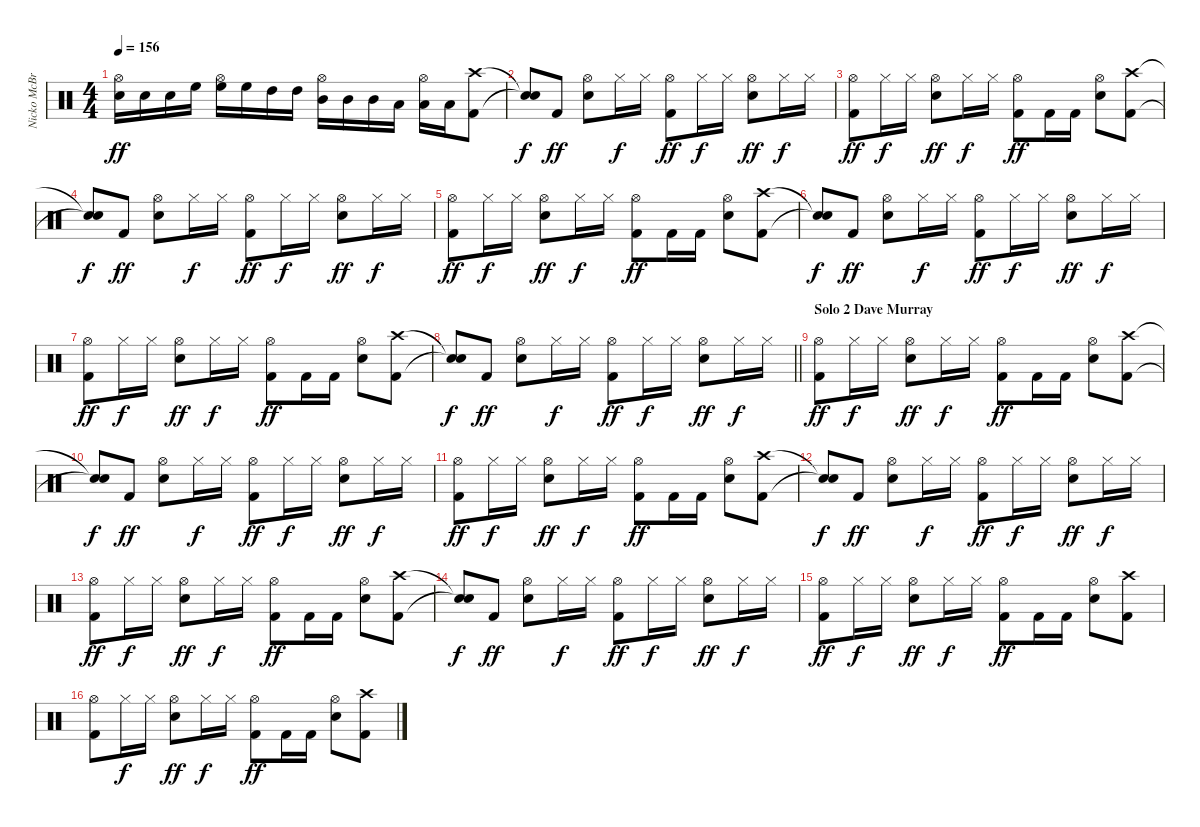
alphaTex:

\track ("Nicko McBrain" "Nicko McBr") {instrument percussion}
\staff {score}
\articulation defaults
\ts (4 4)
\tempo 156
\clef neutral
\ks c
("Snare (hit) 2" "Hi-Hat (open)").16{dy ff} "Snare (hit) 2".16 "Snare (hit) 2".16 "High Floor Tom (hit)".16 ("Hi-Hat (open)" "High Floor Tom (hit)").16 "High Floor Tom (hit)".16 "High Tom (hit)".16 "High Tom (hit)".16 ("Hi-Hat (open)" "Mid Tom (hit)").16 "Mid Tom (hit)".16 "Mid Tom (hit)".16 "Low Tom (hit)".16 ("Low Tom (hit)" "Hi-Hat (open)").16 "Low Tom (hit)".16 ("Kick (hit) 2" "Crash high (hit)").8 |
("Snare (hit)"{t} "Snare (hit)"{t}).8{dy f} "Kick (hit) 2".8{dy ff} ("Snare (hit) 2" "Hi-Hat (open)").8 "Hi-Hat (closed)".16{dy f} "Hi-Hat (closed)".16 ("Kick (hit) 2" "Hi-Hat (open)").8{dy ff} "Hi-Hat (closed)".16{dy f} "Hi-Hat (closed)".16 ("Snare (hit) 2" "Hi-Hat (open)").8{dy ff} "Hi-Hat (closed)".16{dy f} "Hi-Hat (closed)".16 |
("Kick (hit) 2" "Hi-Hat (open)").8{dy ff} "Hi-Hat (closed)".16{dy f} "Hi-Hat (closed)".16 ("Snare (hit) 2" "Hi-Hat (open)").8{dy ff} "Hi-Hat (closed)".16{dy f} "Hi-Hat (closed)".16 ("Kick (hit) 2" "Hi-Hat (open)").8{dy ff} "Kick (hit) 2".16 "Kick (hit) 2".16 ("Snare (hit) 2" "Hi-Hat (open)").8 ("Kick (hit) 2" "Crash high (hit)").8 |
("Snare (hit)"{t} "Snare (hit)"{t}).8{dy f} "Kick (hit) 2".8{dy ff} ("Snare (hit) 2" "Hi-Hat (open)").8 "Hi-Hat (closed)".16{dy f} "Hi-Hat (closed)".16 ("Kick (hit) 2" "Hi-Hat (open)").8{dy ff} "Hi-Hat (closed)".16{dy f} "Hi-Hat (closed)".16 ("Snare (hit) 2" "Hi-Hat (open)").8{dy ff} "Hi-Hat (closed)".16{dy f} "Hi-Hat (closed)".16 |
("Kick (hit) 2" "Hi-Hat (open)").8{dy ff} "Hi-Hat (closed)".16{dy f} "Hi-Hat (closed)".16 ("Snare (hit) 2" "Hi-Hat (open)").8{dy ff} "Hi-Hat (closed)".16{dy f} "Hi-Hat (closed)".16 ("Kick (hit) 2" "Hi-Hat (open)").8{dy ff} "Kick (hit) 2".16 "Kick (hit) 2".16 ("Snare (hit) 2" "Hi-Hat (open)").8 ("Kick (hit) 2" "Crash high (hit)").8 |
("Snare (hit)"{t} "Snare (hit)"{t}).8{dy f} "Kick (hit) 2".8{dy ff} ("Snare (hit) 2" "Hi-Hat (open)").8 "Hi-Hat (closed)".16{dy f} "Hi-Hat (closed)".16 ("Kick (hit) 2" "Hi-Hat (open)").8{dy ff} "Hi-Hat (closed)".16{dy f} "Hi-Hat (closed)".16 ("Snare (hit) 2" "Hi-Hat (open)").8{dy ff} "Hi-Hat (closed)".16{dy f} "Hi-Hat (closed)".16 |
("Kick (hit) 2" "Hi-Hat (open)").8{dy ff} "Hi-Hat (closed)".16{dy f} "Hi-Hat (closed)".16 ("Snare (hit) 2" "Hi-Hat (open)").8{dy ff} "Hi-Hat (closed)".16{dy f} "Hi-Hat (closed)".16 ("Kick (hit) 2" "Hi-Hat (open)").8{dy ff} "Kick (hit) 2".16 "Kick (hit) 2".16 ("Snare (hit) 2" "Hi-Hat (open)").8 ("Kick (hit) 2" "Crash high (hit)").8 |
\barLineRight lightlight
("Snare (hit)"{t} "Snare (hit)"{t}).8{dy f} "Kick (hit) 2".8{dy ff} ("Snare (hit) 2" "Hi-Hat (open)").8 "Hi-Hat (closed)".16{dy f} "Hi-Hat (closed)".16 ("Kick (hit) 2" "Hi-Hat (open)").8{dy ff} "Hi-Hat (closed)".16{dy f} "Hi-Hat (closed)".16 ("Snare (hit) 2" "Hi-Hat (open)").8{dy ff} "Hi-Hat (closed)".16{dy f} "Hi-Hat (closed)".16 |
\section ("" "Solo 2 Dave Murray")
("Kick (hit) 2" "Hi-Hat (open)").8{dy ff} "Hi-Hat (closed)".16{dy f} "Hi-Hat (closed)".16 ("Snare (hit) 2" "Hi-Hat (open)").8{dy ff} "Hi-Hat (closed)".16{dy f} "Hi-Hat (closed)".16 ("Kick (hit) 2" "Hi-Hat (open)").8{dy ff} "Kick (hit) 2".16 "Kick (hit) 2".16 ("Snare (hit) 2" "Hi-Hat (open)").8 ("Kick (hit) 2" "Crash high (hit)").8 |
("Snare (hit)"{t} "Snare (hit)"{t}).8{dy f} "Kick (hit) 2".8{dy ff} ("Snare (hit) 2" "Hi-Hat (open)").8 "Hi-Hat (closed)".16{dy f} "Hi-Hat (closed)".16 ("Kick (hit) 2" "Hi-Hat (open)").8{dy ff} "Hi-Hat (closed)".16{dy f} "Hi-Hat (closed)".16 ("Snare (hit) 2" "Hi-Hat (open)").8{dy ff} "Hi-Hat (closed)".16{dy f} "Hi-Hat (closed)".16 |
("Kick (hit) 2" "Hi-Hat (open)").8{dy ff} "Hi-Hat (closed)".16{dy f} "Hi-Hat (closed)".16 ("Snare (hit) 2" "Hi-Hat (open)").8{dy ff} "Hi-Hat (closed)".16{dy f} "Hi-Hat (closed)".16 ("Kick (hit) 2" "Hi-Hat (open)").8{dy ff} "Kick (hit) 2".16 "Kick (hit) 2".16 ("Snare (hit) 2" "Hi-Hat (open)").8 ("Kick (hit) 2" "Crash high (hit)").8 |
("Snare (hit)"{t} "Snare (hit)"{t}).8{dy f} "Kick (hit) 2".8{dy ff} ("Snare (hit) 2" "Hi-Hat (open)").8 "Hi-Hat (closed)".16{dy f} "Hi-Hat (closed)".16 ("Kick (hit) 2" "Hi-Hat (open)").8{dy ff} "Hi-Hat (closed)".16{dy f} "Hi-Hat (closed)".16 ("Snare (hit) 2" "Hi-Hat (open)").8{dy ff} "Hi-Hat (closed)".16{dy f} "Hi-Hat (closed)".16 |
("Kick (hit) 2" "Hi-Hat (open)").8{dy ff} "Hi-Hat (closed)".16{dy f} "Hi-Hat (closed)".16 ("Snare (hit) 2" "Hi-Hat (open)").8{dy ff} "Hi-Hat (closed)".16{dy f} "Hi-Hat (closed)".16 ("Kick (hit) 2" "Hi-Hat (open)").8{dy ff} "Kick (hit) 2".16 "Kick (hit) 2".16 ("Snare (hit) 2" "Hi-Hat (open)").8 ("Kick (hit) 2" "Crash high (hit)").8 |
("Snare (hit)"{t} "Snare (hit)"{t}).8{dy f} "Kick (hit) 2".8{dy ff} ("Snare (hit) 2" "Hi-Hat (open)").8 "Hi-Hat (closed)".16{dy f} "Hi-Hat (closed)".16 ("Kick (hit) 2" "Hi-Hat (open)").8{dy ff} "Hi-Hat (closed)".16{dy f} "Hi-Hat (closed)".16 ("Snare (hit) 2" "Hi-Hat (open)").8{dy ff} "Hi-Hat (closed)".16{dy f} "Hi-Hat (closed)".16 |
("Kick (hit) 2" "Hi-Hat (open)").8{dy ff} "Hi-Hat (closed)".16{dy f} "Hi-Hat (closed)".16 ("Snare (hit) 2" "Hi-Hat (open)").8{dy ff} "Hi-Hat (closed)".16{dy f} "Hi-Hat (closed)".16 ("Kick (hit) 2" "Hi-Hat (open)").8{dy ff} "Kick (hit) 2".16 "Kick (hit) 2".16 ("Snare (hit) 2" "Hi-Hat (open)").8 ("Kick (hit) 2" "Crash high (hit)").8 |
("Kick (hit) 2" "Hi-Hat (open)").8 "Hi-Hat (closed)".16{dy f} "Hi-Hat (closed)".16 ("Snare (hit) 2" "Hi-Hat (open)").8{dy ff} "Hi-Hat (closed)".16{dy f} "Hi-Hat (closed)".16 ("Kick (hit) 2" "Hi-Hat (open)").8{dy ff} "Kick (hit) 2".16 "Kick (hit) 2".16 ("Snare (hit) 2" "Hi-Hat (open)").8 ("Kick (hit) 2" "Crash high (hit)").8
